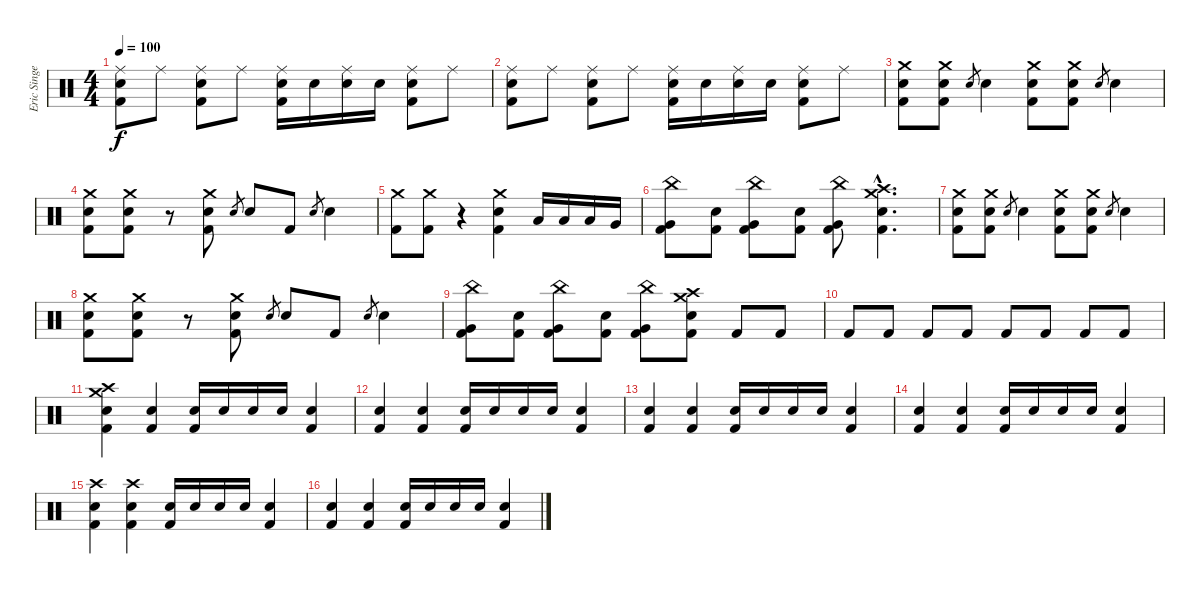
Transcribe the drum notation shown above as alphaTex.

\track ("Eric Singer" "Eric Singe") {instrument percussion}
\staff {score}
\articulation defaults
\ts (4 4)
\tempo 100
\clef neutral
\ks c
("Ride (middle)" "Snare (hit) 2" "Kick (hit) 2").8{dy f} "Ride (middle)".8 ("Ride (middle)" "Snare (hit) 2" "Kick (hit) 2").8 "Ride (middle)".8 ("Ride (middle)" "Snare (hit) 2" "Kick (hit) 2").16 "Snare (hit) 2".16 ("Ride (middle)" "Snare (hit) 2").16 "Snare (hit) 2".16 ("Ride (middle)" "Snare (hit) 2" "Kick (hit) 2").8 "Ride (middle)".8 |
("Ride (middle)" "Snare (hit) 2" "Kick (hit) 2").8 "Ride (middle)".8 ("Ride (middle)" "Snare (hit) 2" "Kick (hit) 2").8 "Ride (middle)".8 ("Ride (middle)" "Snare (hit) 2" "Kick (hit) 2").16 "Snare (hit) 2".16 ("Ride (middle)" "Snare (hit) 2").16 "Snare (hit) 2".16 ("Ride (middle)" "Snare (hit) 2" "Kick (hit) 2").8 "Ride (middle)".8 |
("Crash medium (hit)" "Snare (hit) 2" "Kick (hit) 2").8 ("Crash medium (hit)" "Snare (hit) 2" "Kick (hit) 2").8 "Electric Snare (hit)".8{gr} "Electric Snare (hit)".4 ("Crash medium (hit)" "Snare (hit) 2" "Kick (hit) 2").8 ("Crash medium (hit)" "Snare (hit) 2" "Kick (hit) 2").8 "Electric Snare (hit)".8{gr} "Electric Snare (hit)".4 |
("Crash medium (hit)" "Snare (hit) 2" "Kick (hit) 2").8 ("Crash medium (hit)" "Snare (hit) 2" "Kick (hit) 2").8 r.8 ("Crash medium (hit)" "Snare (hit) 2" "Kick (hit) 2").8 "Electric Snare (hit)".8{gr} "Electric Snare (hit)".8 "Kick (hit) 2".8 "Electric Snare (hit)".8{gr} "Electric Snare (hit)".4 |
("Kick (hit) 2" "Crash medium (hit)").8 ("Kick (hit) 2" "Crash medium (hit)").8 r.4 ("Crash medium (hit)" "Snare (hit) 2" "Kick (hit) 2").4 "Low Tom (hit)".16 "Low Tom (hit)".16 "Low Tom (hit)".16 "Very Low Tom (hit)".16 |
("Very Low Tom (hit)" "China (hit)" "Kick (hit) 2").8 ("Kick (hit) 2" "Snare (hit) 2").8 ("Very Low Tom (hit)" "China (hit)" "Kick (hit) 2").8 ("Kick (hit) 2" "Snare (hit) 2").8 ("Very Low Tom (hit)" "China (hit)" "Kick (hit) 2").8 ("Crash medium (hit)"{hac} "Crash high (hit)"{hac} "Kick (hit) 2"{hac} "Snare (hit) 2"{hac}).4{d} |
("Crash medium (hit)" "Snare (hit) 2" "Kick (hit) 2").8 ("Crash medium (hit)" "Snare (hit) 2" "Kick (hit) 2").8 "Electric Snare (hit)".8{gr} "Electric Snare (hit)".4 ("Crash medium (hit)" "Snare (hit) 2" "Kick (hit) 2").8 ("Crash medium (hit)" "Snare (hit) 2" "Kick (hit) 2").8 "Electric Snare (hit)".8{gr} "Electric Snare (hit)".4 |
("Crash medium (hit)" "Snare (hit) 2" "Kick (hit) 2").8 ("Crash medium (hit)" "Snare (hit) 2" "Kick (hit) 2").8 r.8 ("Crash medium (hit)" "Snare (hit) 2" "Kick (hit) 2").8 "Electric Snare (hit)".8{gr} "Electric Snare (hit)".8 "Kick (hit) 2".8 "Electric Snare (hit)".8{gr} "Electric Snare (hit)".4 |
("Very Low Tom (hit)" "China (hit)" "Kick (hit) 2").8 ("Kick (hit) 2" "Snare (hit) 2").8 ("Very Low Tom (hit)" "China (hit)" "Kick (hit) 2").8 ("Kick (hit) 2" "Snare (hit) 2").8 ("Very Low Tom (hit)" "China (hit)" "Kick (hit) 2").8 ("Crash medium (hit)" "Crash high (hit)" "Kick (hit) 2" "Snare (hit) 2").8 "Kick (hit) 2".8 "Kick (hit) 2".8 |
"Kick (hit) 2".8 "Kick (hit) 2".8 "Kick (hit) 2".8 "Kick (hit) 2".8 "Kick (hit) 2".8 "Kick (hit) 2".8 "Kick (hit) 2".8 "Kick (hit) 2".8 |
("Crash high (hit)" "Crash medium (hit)" "Snare (hit) 2" "Kick (hit) 2").4 ("Snare (hit) 2" "Kick (hit) 2").4 ("Snare (hit) 2" "Kick (hit) 2").16 "Snare (hit) 2".16 "Snare (hit) 2".16 "Snare (hit) 2".16 ("Snare (hit) 2" "Kick (hit) 2").4 |
("Snare (hit) 2" "Kick (hit) 2").4 ("Snare (hit) 2" "Kick (hit) 2").4 ("Snare (hit) 2" "Kick (hit) 2").16 "Snare (hit) 2".16 "Snare (hit) 2".16 "Snare (hit) 2".16 ("Snare (hit) 2" "Kick (hit) 2").4 |
("Snare (hit) 2" "Kick (hit) 2").4 ("Snare (hit) 2" "Kick (hit) 2").4 ("Snare (hit) 2" "Kick (hit) 2").16 "Snare (hit) 2".16 "Snare (hit) 2".16 "Snare (hit) 2".16 ("Snare (hit) 2" "Kick (hit) 2").4 |
("Snare (hit) 2" "Kick (hit) 2").4 ("Snare (hit) 2" "Kick (hit) 2").4 ("Snare (hit) 2" "Kick (hit) 2").16 "Snare (hit) 2".16 "Snare (hit) 2".16 "Snare (hit) 2".16 ("Snare (hit) 2" "Kick (hit) 2").4 |
("Crash high (hit)" "Snare (hit) 2" "Kick (hit) 2").4 ("Crash high (hit)" "Snare (hit) 2" "Kick (hit) 2").4 ("Snare (hit) 2" "Kick (hit) 2").16 "Snare (hit) 2".16 "Snare (hit) 2".16 "Snare (hit) 2".16 ("Snare (hit) 2" "Kick (hit) 2").4 |
("Snare (hit) 2" "Kick (hit) 2").4 ("Snare (hit) 2" "Kick (hit) 2").4 ("Snare (hit) 2" "Kick (hit) 2").16 "Snare (hit) 2".16 "Snare (hit) 2".16 "Snare (hit) 2".16 ("Snare (hit) 2" "Kick (hit) 2").4
